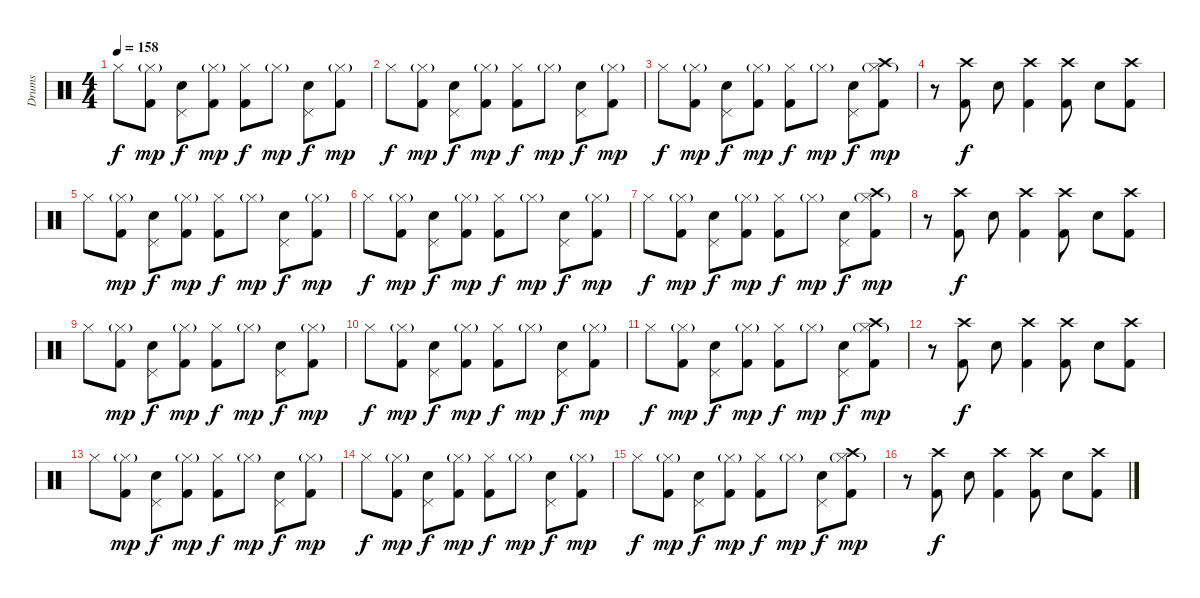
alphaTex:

\track ("Drums" "Drums") {instrument percussion}
\staff {score}
\articulation defaults
\ts (4 4)
\tempo 158
\clef neutral
\ks c "Hi-Hat (closed)".8{dy f}
("Hi-Hat (closed)"{g} "Kick (hit) 2").8{dy mp} ("Pedal Hi-Hat (hit)" "Snare (hit) 2").8{dy f} ("Hi-Hat (closed)"{g} "Kick (hit) 2").8{dy mp} ("Hi-Hat (closed)" "Kick (hit) 2").8{dy f} "Hi-Hat (closed)"{g}.8{dy mp} ("Pedal Hi-Hat (hit)" "Snare (hit) 2").8{dy f} ("Hi-Hat (closed)"{g} "Kick (hit) 2").8{dy mp} |
"Hi-Hat (closed)".8{dy f} ("Hi-Hat (closed)"{g} "Kick (hit) 2").8{dy mp} ("Pedal Hi-Hat (hit)" "Snare (hit) 2").8{dy f} ("Hi-Hat (closed)"{g} "Kick (hit) 2").8{dy mp} ("Hi-Hat (closed)" "Kick (hit) 2").8{dy f} "Hi-Hat (closed)"{g}.8{dy mp} ("Pedal Hi-Hat (hit)" "Snare (hit) 2").8{dy f} ("Hi-Hat (closed)"{g} "Kick (hit) 2").8{dy mp} |
"Hi-Hat (closed)".8{dy f} ("Hi-Hat (closed)"{g} "Kick (hit) 2").8{dy mp} ("Pedal Hi-Hat (hit)" "Snare (hit) 2").8{dy f} ("Hi-Hat (closed)"{g} "Kick (hit) 2").8{dy mp} ("Hi-Hat (closed)" "Kick (hit) 2").8{dy f} "Hi-Hat (closed)"{g}.8{dy mp} ("Pedal Hi-Hat (hit)" "Snare (hit) 2").8{dy f} ("Crash high (hit)" "Hi-Hat (closed)"{g} "Kick (hit) 2").8{dy mp} |
r.8 ("Crash high (hit)" "Kick (hit) 2").8{dy f} "Snare (hit) 2".8 ("Crash high (hit)" "Kick (hit) 2").4 ("Crash high (hit)" "Kick (hit) 2").8 "Snare (hit) 2".8 ("Crash high (hit)" "Kick (hit) 2").8 |
"Hi-Hat (closed)".8 ("Hi-Hat (closed)"{g} "Kick (hit) 2").8{dy mp} ("Pedal Hi-Hat (hit)" "Snare (hit) 2").8{dy f} ("Hi-Hat (closed)"{g} "Kick (hit) 2").8{dy mp} ("Hi-Hat (closed)" "Kick (hit) 2").8{dy f} "Hi-Hat (closed)"{g}.8{dy mp} ("Pedal Hi-Hat (hit)" "Snare (hit) 2").8{dy f} ("Hi-Hat (closed)"{g} "Kick (hit) 2").8{dy mp} |
"Hi-Hat (closed)".8{dy f} ("Hi-Hat (closed)"{g} "Kick (hit) 2").8{dy mp} ("Pedal Hi-Hat (hit)" "Snare (hit) 2").8{dy f} ("Hi-Hat (closed)"{g} "Kick (hit) 2").8{dy mp} ("Hi-Hat (closed)" "Kick (hit) 2").8{dy f} "Hi-Hat (closed)"{g}.8{dy mp} ("Pedal Hi-Hat (hit)" "Snare (hit) 2").8{dy f} ("Hi-Hat (closed)"{g} "Kick (hit) 2").8{dy mp} |
"Hi-Hat (closed)".8{dy f} ("Hi-Hat (closed)"{g} "Kick (hit) 2").8{dy mp} ("Pedal Hi-Hat (hit)" "Snare (hit) 2").8{dy f} ("Hi-Hat (closed)"{g} "Kick (hit) 2").8{dy mp} ("Hi-Hat (closed)" "Kick (hit) 2").8{dy f} "Hi-Hat (closed)"{g}.8{dy mp} ("Pedal Hi-Hat (hit)" "Snare (hit) 2").8{dy f} ("Crash high (hit)" "Hi-Hat (closed)"{g} "Kick (hit) 2").8{dy mp} |
r.8 ("Crash high (hit)" "Kick (hit) 2").8{dy f} "Snare (hit) 2".8 ("Crash high (hit)" "Kick (hit) 2").4 ("Crash high (hit)" "Kick (hit) 2").8 "Snare (hit) 2".8 ("Crash high (hit)" "Kick (hit) 2").8 |
"Hi-Hat (closed)".8 ("Hi-Hat (closed)"{g} "Kick (hit) 2").8{dy mp} ("Pedal Hi-Hat (hit)" "Snare (hit) 2").8{dy f} ("Hi-Hat (closed)"{g} "Kick (hit) 2").8{dy mp} ("Hi-Hat (closed)" "Kick (hit) 2").8{dy f} "Hi-Hat (closed)"{g}.8{dy mp} ("Pedal Hi-Hat (hit)" "Snare (hit) 2").8{dy f} ("Hi-Hat (closed)"{g} "Kick (hit) 2").8{dy mp} |
"Hi-Hat (closed)".8{dy f} ("Hi-Hat (closed)"{g} "Kick (hit) 2").8{dy mp} ("Pedal Hi-Hat (hit)" "Snare (hit) 2").8{dy f} ("Hi-Hat (closed)"{g} "Kick (hit) 2").8{dy mp} ("Hi-Hat (closed)" "Kick (hit) 2").8{dy f} "Hi-Hat (closed)"{g}.8{dy mp} ("Pedal Hi-Hat (hit)" "Snare (hit) 2").8{dy f} ("Hi-Hat (closed)"{g} "Kick (hit) 2").8{dy mp} |
"Hi-Hat (closed)".8{dy f} ("Hi-Hat (closed)"{g} "Kick (hit) 2").8{dy mp} ("Pedal Hi-Hat (hit)" "Snare (hit) 2").8{dy f} ("Hi-Hat (closed)"{g} "Kick (hit) 2").8{dy mp} ("Hi-Hat (closed)" "Kick (hit) 2").8{dy f} "Hi-Hat (closed)"{g}.8{dy mp} ("Pedal Hi-Hat (hit)" "Snare (hit) 2").8{dy f} ("Crash high (hit)" "Hi-Hat (closed)"{g} "Kick (hit) 2").8{dy mp} |
r.8 ("Crash high (hit)" "Kick (hit) 2").8{dy f} "Snare (hit) 2".8 ("Crash high (hit)" "Kick (hit) 2").4 ("Crash high (hit)" "Kick (hit) 2").8 "Snare (hit) 2".8 ("Crash high (hit)" "Kick (hit) 2").8 |
"Hi-Hat (closed)".8 ("Hi-Hat (closed)"{g} "Kick (hit) 2").8{dy mp} ("Pedal Hi-Hat (hit)" "Snare (hit) 2").8{dy f} ("Hi-Hat (closed)"{g} "Kick (hit) 2").8{dy mp} ("Hi-Hat (closed)" "Kick (hit) 2").8{dy f} "Hi-Hat (closed)"{g}.8{dy mp} ("Pedal Hi-Hat (hit)" "Snare (hit) 2").8{dy f} ("Hi-Hat (closed)"{g} "Kick (hit) 2").8{dy mp} |
"Hi-Hat (closed)".8{dy f} ("Hi-Hat (closed)"{g} "Kick (hit) 2").8{dy mp} ("Pedal Hi-Hat (hit)" "Snare (hit) 2").8{dy f} ("Hi-Hat (closed)"{g} "Kick (hit) 2").8{dy mp} ("Hi-Hat (closed)" "Kick (hit) 2").8{dy f} "Hi-Hat (closed)"{g}.8{dy mp} ("Pedal Hi-Hat (hit)" "Snare (hit) 2").8{dy f} ("Hi-Hat (closed)"{g} "Kick (hit) 2").8{dy mp} |
"Hi-Hat (closed)".8{dy f} ("Hi-Hat (closed)"{g} "Kick (hit) 2").8{dy mp} ("Pedal Hi-Hat (hit)" "Snare (hit) 2").8{dy f} ("Hi-Hat (closed)"{g} "Kick (hit) 2").8{dy mp} ("Hi-Hat (closed)" "Kick (hit) 2").8{dy f} "Hi-Hat (closed)"{g}.8{dy mp} ("Pedal Hi-Hat (hit)" "Snare (hit) 2").8{dy f} ("Crash high (hit)" "Hi-Hat (closed)"{g} "Kick (hit) 2").8{dy mp} |
r.8 ("Crash high (hit)" "Kick (hit) 2").8{dy f} "Snare (hit) 2".8 ("Crash high (hit)" "Kick (hit) 2").4 ("Crash high (hit)" "Kick (hit) 2").8 "Snare (hit) 2".8 ("Crash high (hit)" "Kick (hit) 2").8
